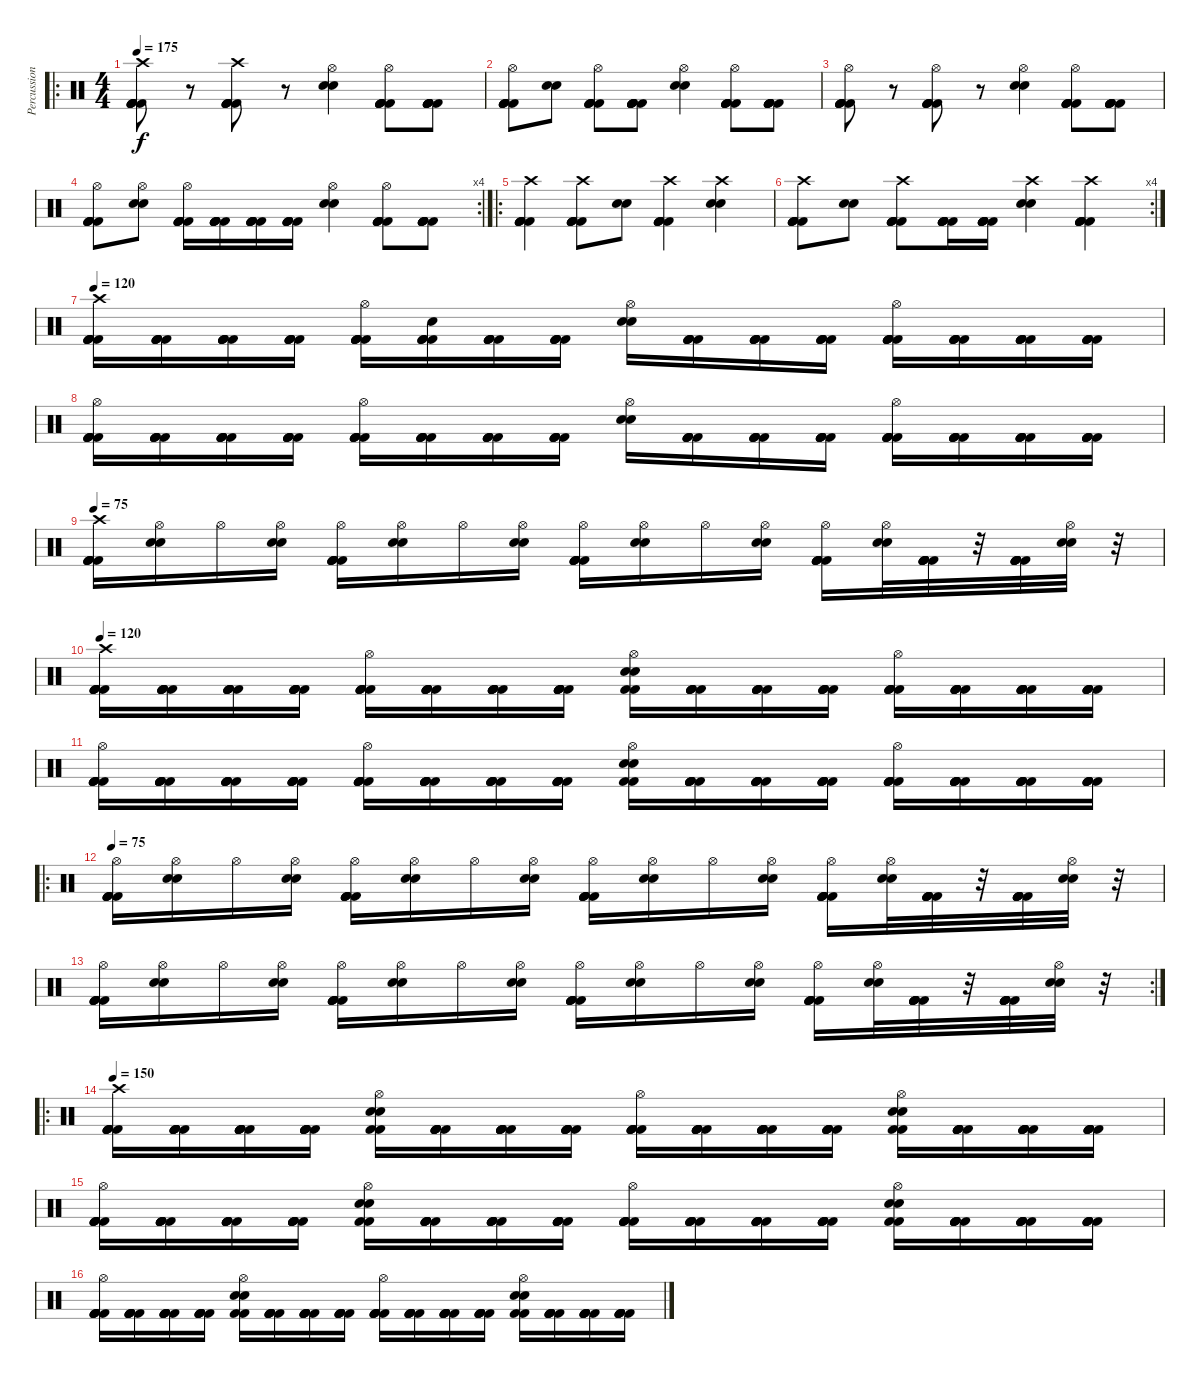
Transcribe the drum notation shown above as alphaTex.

\track ("Percussions" "Percussion") {instrument percussion}
\staff {score}
\articulation defaults
\ro
\ts (4 4)
\tempo 175
\clef neutral
\ks c
("Kick (hit) 2" "Kick (hit) 2" "Kick (hit) 2" "Kick (hit) 2" "Kick (hit) 2" "Crash high (hit)").8{dy f} r.8 ("Kick (hit) 2" "Kick (hit) 2" "Kick (hit) 2" "Kick (hit) 2" "Kick (hit) 2" "Crash high (hit)").8 r.8 ("Electric Snare (hit)" "Electric Snare (hit)" "Hi-Hat (open)").4 ("Kick (hit) 2" "Kick (hit) 2" "Kick (hit) 2" "Kick (hit) 2" "Kick (hit) 2" "Hi-Hat (open)").8 ("Kick (hit) 2" "Kick (hit) 2" "Kick (hit) 2" "Kick (hit) 2" "Kick (hit) 2" "Kick (hit) 2").8 |
("Kick (hit) 2" "Kick (hit) 2" "Kick (hit) 2" "Kick (hit) 2" "Kick (hit) 2" "Hi-Hat (open)").8 ("Electric Snare (hit)" "Electric Snare (hit)").8 ("Kick (hit) 2" "Kick (hit) 2" "Kick (hit) 2" "Kick (hit) 2" "Kick (hit) 2" "Hi-Hat (open)").8 ("Kick (hit) 2" "Kick (hit) 2" "Kick (hit) 2" "Kick (hit) 2" "Kick (hit) 2" "Kick (hit) 2").8 ("Electric Snare (hit)" "Electric Snare (hit)" "Hi-Hat (open)").4 ("Kick (hit) 2" "Kick (hit) 2" "Kick (hit) 2" "Kick (hit) 2" "Kick (hit) 2" "Hi-Hat (open)").8 ("Kick (hit) 2" "Kick (hit) 2" "Kick (hit) 2" "Kick (hit) 2" "Kick (hit) 2" "Kick (hit) 2").8 |
("Kick (hit) 2" "Kick (hit) 2" "Kick (hit) 2" "Kick (hit) 2" "Kick (hit) 2" "Hi-Hat (open)").8 r.8 ("Kick (hit) 2" "Kick (hit) 2" "Kick (hit) 2" "Kick (hit) 2" "Kick (hit) 2" "Hi-Hat (open)").8 r.8 ("Electric Snare (hit)" "Electric Snare (hit)" "Hi-Hat (open)").4 ("Kick (hit) 2" "Kick (hit) 2" "Kick (hit) 2" "Kick (hit) 2" "Kick (hit) 2" "Hi-Hat (open)").8 ("Kick (hit) 2" "Kick (hit) 2" "Kick (hit) 2" "Kick (hit) 2" "Kick (hit) 2" "Kick (hit) 2").8 |
\rc 4
("Kick (hit) 2" "Kick (hit) 2" "Kick (hit) 2" "Kick (hit) 2" "Kick (hit) 2" "Hi-Hat (open)").8 ("Electric Snare (hit)" "Electric Snare (hit)" "Hi-Hat (open)").8 ("Kick (hit) 2" "Kick (hit) 2" "Kick (hit) 2" "Kick (hit) 2" "Kick (hit) 2" "Hi-Hat (open)").16 ("Kick (hit) 2" "Kick (hit) 2" "Kick (hit) 2" "Kick (hit) 2" "Kick (hit) 2" "Kick (hit) 2").16 ("Kick (hit) 2" "Kick (hit) 2" "Kick (hit) 2" "Kick (hit) 2" "Kick (hit) 2" "Kick (hit) 2").16 ("Kick (hit) 2" "Kick (hit) 2" "Kick (hit) 2" "Kick (hit) 2" "Kick (hit) 2" "Kick (hit) 2").16 ("Electric Snare (hit)" "Electric Snare (hit)" "Hi-Hat (open)").4 ("Kick (hit) 2" "Kick (hit) 2" "Kick (hit) 2" "Kick (hit) 2" "Kick (hit) 2" "Hi-Hat (open)").8 ("Kick (hit) 2" "Kick (hit) 2" "Kick (hit) 2" "Kick (hit) 2" "Kick (hit) 2" "Kick (hit) 2").8 |
\ro
("Kick (hit) 2" "Kick (hit) 2" "Kick (hit) 2" "Kick (hit) 2" "Kick (hit) 2" "Crash high (hit)").4 ("Kick (hit) 2" "Kick (hit) 2" "Kick (hit) 2" "Kick (hit) 2" "Kick (hit) 2" "Crash high (hit)").8 ("Electric Snare (hit)" "Electric Snare (hit)").8 ("Kick (hit) 2" "Kick (hit) 2" "Kick (hit) 2" "Kick (hit) 2" "Kick (hit) 2" "Crash high (hit)").4 ("Electric Snare (hit)" "Electric Snare (hit)" "Crash high (hit)").4 |
\rc 4
("Kick (hit) 2" "Kick (hit) 2" "Kick (hit) 2" "Kick (hit) 2" "Kick (hit) 2" "Crash high (hit)").8 ("Electric Snare (hit)" "Electric Snare (hit)").8 ("Kick (hit) 2" "Kick (hit) 2" "Kick (hit) 2" "Kick (hit) 2" "Kick (hit) 2" "Crash high (hit)").8 ("Kick (hit) 2" "Kick (hit) 2" "Kick (hit) 2" "Kick (hit) 2" "Kick (hit) 2" "Kick (hit) 2").16 ("Kick (hit) 2" "Kick (hit) 2" "Kick (hit) 2" "Kick (hit) 2" "Kick (hit) 2" "Kick (hit) 2").16 ("Electric Snare (hit)" "Electric Snare (hit)" "Crash high (hit)").4 ("Kick (hit) 2" "Kick (hit) 2" "Kick (hit) 2" "Kick (hit) 2" "Kick (hit) 2" "Crash high (hit)").4 |
\tempo 120
("Kick (hit) 2" "Kick (hit) 2" "Kick (hit) 2" "Kick (hit) 2" "Kick (hit) 2" "Crash high (hit)").16 ("Kick (hit) 2" "Kick (hit) 2" "Kick (hit) 2" "Kick (hit) 2" "Kick (hit) 2").16 ("Kick (hit) 2" "Kick (hit) 2" "Kick (hit) 2" "Kick (hit) 2" "Kick (hit) 2").16 ("Kick (hit) 2" "Kick (hit) 2" "Kick (hit) 2" "Kick (hit) 2" "Kick (hit) 2").16 ("Kick (hit) 2" "Kick (hit) 2" "Kick (hit) 2" "Kick (hit) 2" "Kick (hit) 2" "Hi-Hat (open)").16 ("Snare (hit)" "Kick (hit) 2" "Kick (hit) 2" "Kick (hit) 2" "Kick (hit) 2").16 ("Kick (hit) 2" "Kick (hit) 2" "Kick (hit) 2" "Kick (hit) 2" "Kick (hit) 2").16 ("Kick (hit) 2" "Kick (hit) 2" "Kick (hit) 2" "Kick (hit) 2" "Kick (hit) 2").16 ("Electric Snare (hit)" "Electric Snare (hit)" "Hi-Hat (open)").16 ("Kick (hit) 2" "Kick (hit) 2" "Kick (hit) 2" "Kick (hit) 2" "Kick (hit) 2").16 ("Kick (hit) 2" "Kick (hit) 2" "Kick (hit) 2" "Kick (hit) 2" "Kick (hit) 2").16 ("Kick (hit) 2" "Kick (hit) 2" "Kick (hit) 2" "Kick (hit) 2" "Kick (hit) 2").16 ("Kick (hit) 2" "Kick (hit) 2" "Kick (hit) 2" "Kick (hit) 2" "Kick (hit) 2" "Hi-Hat (open)").16 ("Kick (hit) 2" "Kick (hit) 2" "Kick (hit) 2" "Kick (hit) 2" "Kick (hit) 2").16 ("Kick (hit) 2" "Kick (hit) 2" "Kick (hit) 2" "Kick (hit) 2" "Kick (hit) 2").16 ("Kick (hit) 2" "Kick (hit) 2" "Kick (hit) 2" "Kick (hit) 2" "Kick (hit) 2").16 |
("Kick (hit) 2" "Kick (hit) 2" "Kick (hit) 2" "Kick (hit) 2" "Kick (hit) 2" "Hi-Hat (open)").16 ("Kick (hit) 2" "Kick (hit) 2" "Kick (hit) 2" "Kick (hit) 2" "Kick (hit) 2").16 ("Kick (hit) 2" "Kick (hit) 2" "Kick (hit) 2" "Kick (hit) 2" "Kick (hit) 2").16 ("Kick (hit) 2" "Kick (hit) 2" "Kick (hit) 2" "Kick (hit) 2" "Kick (hit) 2").16 ("Kick (hit) 2" "Kick (hit) 2" "Kick (hit) 2" "Kick (hit) 2" "Kick (hit) 2" "Hi-Hat (open)").16 ("Kick (hit) 2" "Kick (hit) 2" "Kick (hit) 2" "Kick (hit) 2" "Kick (hit) 2").16 ("Kick (hit) 2" "Kick (hit) 2" "Kick (hit) 2" "Kick (hit) 2" "Kick (hit) 2").16 ("Kick (hit) 2" "Kick (hit) 2" "Kick (hit) 2" "Kick (hit) 2" "Kick (hit) 2").16 ("Electric Snare (hit)" "Electric Snare (hit)" "Hi-Hat (open)").16 ("Kick (hit) 2" "Kick (hit) 2" "Kick (hit) 2" "Kick (hit) 2" "Kick (hit) 2").16 ("Kick (hit) 2" "Kick (hit) 2" "Kick (hit) 2" "Kick (hit) 2" "Kick (hit) 2").16 ("Kick (hit) 2" "Kick (hit) 2" "Kick (hit) 2" "Kick (hit) 2" "Kick (hit) 2").16 ("Kick (hit) 2" "Kick (hit) 2" "Kick (hit) 2" "Kick (hit) 2" "Kick (hit) 2" "Hi-Hat (open)").16 ("Kick (hit) 2" "Kick (hit) 2" "Kick (hit) 2" "Kick (hit) 2" "Kick (hit) 2").16 ("Kick (hit) 2" "Kick (hit) 2" "Kick (hit) 2" "Kick (hit) 2" "Kick (hit) 2").16 ("Kick (hit) 2" "Kick (hit) 2" "Kick (hit) 2" "Kick (hit) 2" "Kick (hit) 2").16 |
\tempo 75
("Kick (hit) 2" "Kick (hit) 2" "Kick (hit) 2" "Kick (hit) 2" "Kick (hit) 2" "Crash high (hit)").16 ("Electric Snare (hit)" "Electric Snare (hit)" "Hi-Hat (open)").16 "Hi-Hat (open)".16 ("Electric Snare (hit)" "Electric Snare (hit)" "Hi-Hat (open)").16 ("Kick (hit) 2" "Kick (hit) 2" "Kick (hit) 2" "Kick (hit) 2" "Kick (hit) 2" "Hi-Hat (open)").16 ("Electric Snare (hit)" "Electric Snare (hit)" "Hi-Hat (open)").16 "Hi-Hat (open)".16 ("Electric Snare (hit)" "Electric Snare (hit)" "Hi-Hat (open)").16 ("Kick (hit) 2" "Kick (hit) 2" "Kick (hit) 2" "Kick (hit) 2" "Kick (hit) 2" "Hi-Hat (open)").16 ("Electric Snare (hit)" "Electric Snare (hit)" "Hi-Hat (open)").16 "Hi-Hat (open)".16 ("Electric Snare (hit)" "Electric Snare (hit)" "Hi-Hat (open)").16 ("Kick (hit) 2" "Kick (hit) 2" "Kick (hit) 2" "Kick (hit) 2" "Kick (hit) 2" "Hi-Hat (open)").16 ("Electric Snare (hit)" "Electric Snare (hit)" "Hi-Hat (open)").32 ("Kick (hit) 2" "Kick (hit) 2" "Kick (hit) 2" "Kick (hit) 2" "Kick (hit) 2" "Kick (hit) 2").32 r.32 ("Kick (hit) 2" "Kick (hit) 2" "Kick (hit) 2" "Kick (hit) 2" "Kick (hit) 2" "Kick (hit) 2").32 ("Electric Snare (hit)" "Electric Snare (hit)" "Hi-Hat (open)").32 r.32 |
\tempo 120
("Kick (hit) 2" "Kick (hit) 2" "Kick (hit) 2" "Kick (hit) 2" "Kick (hit) 2" "Crash high (hit)").16 ("Kick (hit) 2" "Kick (hit) 2" "Kick (hit) 2" "Kick (hit) 2" "Kick (hit) 2" "Kick (hit) 2").16 ("Kick (hit) 2" "Kick (hit) 2" "Kick (hit) 2" "Kick (hit) 2" "Kick (hit) 2" "Kick (hit) 2").16 ("Kick (hit) 2" "Kick (hit) 2" "Kick (hit) 2" "Kick (hit) 2" "Kick (hit) 2" "Kick (hit) 2").16 ("Kick (hit) 2" "Kick (hit) 2" "Kick (hit) 2" "Kick (hit) 2" "Kick (hit) 2" "Hi-Hat (open)").16 ("Kick (hit) 2" "Kick (hit) 2" "Kick (hit) 2" "Kick (hit) 2" "Kick (hit) 2" "Kick (hit) 2").16 ("Kick (hit) 2" "Kick (hit) 2" "Kick (hit) 2" "Kick (hit) 2" "Kick (hit) 2" "Kick (hit) 2").16 ("Kick (hit) 2" "Kick (hit) 2" "Kick (hit) 2" "Kick (hit) 2" "Kick (hit) 2" "Kick (hit) 2").16 ("Kick (hit) 2" "Kick (hit) 2" "Electric Snare (hit)" "Electric Snare (hit)" "Hi-Hat (open)").16 ("Kick (hit) 2" "Kick (hit) 2" "Kick (hit) 2" "Kick (hit) 2" "Kick (hit) 2").16 ("Kick (hit) 2" "Kick (hit) 2" "Kick (hit) 2" "Kick (hit) 2" "Kick (hit) 2").16 ("Kick (hit) 2" "Kick (hit) 2" "Kick (hit) 2" "Kick (hit) 2" "Kick (hit) 2").16 ("Kick (hit) 2" "Kick (hit) 2" "Kick (hit) 2" "Kick (hit) 2" "Kick (hit) 2" "Hi-Hat (open)").16 ("Kick (hit) 2" "Kick (hit) 2" "Kick (hit) 2" "Kick (hit) 2" "Kick (hit) 2" "Kick (hit) 2").16 ("Kick (hit) 2" "Kick (hit) 2" "Kick (hit) 2" "Kick (hit) 2" "Kick (hit) 2" "Kick (hit) 2").16 ("Kick (hit) 2" "Kick (hit) 2" "Kick (hit) 2" "Kick (hit) 2" "Kick (hit) 2" "Kick (hit) 2").16 |
("Kick (hit) 2" "Kick (hit) 2" "Kick (hit) 2" "Kick (hit) 2" "Kick (hit) 2" "Hi-Hat (open)").16 ("Kick (hit) 2" "Kick (hit) 2" "Kick (hit) 2" "Kick (hit) 2" "Kick (hit) 2" "Kick (hit) 2").16 ("Kick (hit) 2" "Kick (hit) 2" "Kick (hit) 2" "Kick (hit) 2" "Kick (hit) 2" "Kick (hit) 2").16 ("Kick (hit) 2" "Kick (hit) 2" "Kick (hit) 2" "Kick (hit) 2" "Kick (hit) 2" "Kick (hit) 2").16 ("Kick (hit) 2" "Kick (hit) 2" "Kick (hit) 2" "Kick (hit) 2" "Kick (hit) 2" "Hi-Hat (open)").16 ("Kick (hit) 2" "Kick (hit) 2" "Kick (hit) 2" "Kick (hit) 2" "Kick (hit) 2" "Kick (hit) 2").16 ("Kick (hit) 2" "Kick (hit) 2" "Kick (hit) 2" "Kick (hit) 2" "Kick (hit) 2" "Kick (hit) 2").16 ("Kick (hit) 2" "Kick (hit) 2" "Kick (hit) 2" "Kick (hit) 2" "Kick (hit) 2" "Kick (hit) 2").16 ("Kick (hit) 2" "Kick (hit) 2" "Electric Snare (hit)" "Electric Snare (hit)" "Hi-Hat (open)").16 ("Kick (hit) 2" "Kick (hit) 2" "Kick (hit) 2" "Kick (hit) 2" "Kick (hit) 2" "Kick (hit) 2").16 ("Kick (hit) 2" "Kick (hit) 2" "Kick (hit) 2" "Kick (hit) 2" "Kick (hit) 2" "Kick (hit) 2").16 ("Kick (hit) 2" "Kick (hit) 2" "Kick (hit) 2" "Kick (hit) 2" "Kick (hit) 2" "Kick (hit) 2").16 ("Kick (hit) 2" "Kick (hit) 2" "Kick (hit) 2" "Kick (hit) 2" "Kick (hit) 2" "Hi-Hat (open)").16 ("Kick (hit) 2" "Kick (hit) 2" "Kick (hit) 2" "Kick (hit) 2" "Kick (hit) 2" "Kick (hit) 2").16 ("Kick (hit) 2" "Kick (hit) 2" "Kick (hit) 2" "Kick (hit) 2" "Kick (hit) 2" "Kick (hit) 2").16 ("Kick (hit) 2" "Kick (hit) 2" "Kick (hit) 2" "Kick (hit) 2" "Kick (hit) 2" "Kick (hit) 2").16 |
\ro
\tempo 75
("Kick (hit) 2" "Kick (hit) 2" "Kick (hit) 2" "Kick (hit) 2" "Kick (hit) 2" "Hi-Hat (open)").16 ("Electric Snare (hit)" "Electric Snare (hit)" "Hi-Hat (open)").16 "Hi-Hat (open)".16 ("Electric Snare (hit)" "Electric Snare (hit)" "Hi-Hat (open)").16 ("Kick (hit) 2" "Kick (hit) 2" "Kick (hit) 2" "Kick (hit) 2" "Kick (hit) 2" "Hi-Hat (open)").16 ("Electric Snare (hit)" "Electric Snare (hit)" "Hi-Hat (open)").16 "Hi-Hat (open)".16 ("Electric Snare (hit)" "Electric Snare (hit)" "Hi-Hat (open)").16 ("Kick (hit) 2" "Kick (hit) 2" "Kick (hit) 2" "Kick (hit) 2" "Kick (hit) 2" "Hi-Hat (open)").16 ("Electric Snare (hit)" "Electric Snare (hit)" "Hi-Hat (open)").16 "Hi-Hat (open)".16 ("Electric Snare (hit)" "Electric Snare (hit)" "Hi-Hat (open)").16 ("Kick (hit) 2" "Kick (hit) 2" "Kick (hit) 2" "Kick (hit) 2" "Kick (hit) 2" "Hi-Hat (open)").16 ("Electric Snare (hit)" "Electric Snare (hit)" "Hi-Hat (open)").32 ("Kick (hit) 2" "Kick (hit) 2" "Kick (hit) 2" "Kick (hit) 2" "Kick (hit) 2" "Kick (hit) 2").32 r.32 ("Kick (hit) 2" "Kick (hit) 2" "Kick (hit) 2" "Kick (hit) 2" "Kick (hit) 2" "Kick (hit) 2").32 ("Electric Snare (hit)" "Electric Snare (hit)" "Hi-Hat (open)").32 r.32 |
\rc 2
("Kick (hit) 2" "Kick (hit) 2" "Kick (hit) 2" "Kick (hit) 2" "Kick (hit) 2" "Hi-Hat (open)").16 ("Electric Snare (hit)" "Electric Snare (hit)" "Hi-Hat (open)").16 "Hi-Hat (open)".16 ("Electric Snare (hit)" "Electric Snare (hit)" "Hi-Hat (open)").16 ("Kick (hit) 2" "Kick (hit) 2" "Kick (hit) 2" "Kick (hit) 2" "Kick (hit) 2" "Hi-Hat (open)").16 ("Electric Snare (hit)" "Electric Snare (hit)" "Hi-Hat (open)").16 "Hi-Hat (open)".16 ("Electric Snare (hit)" "Electric Snare (hit)" "Hi-Hat (open)").16 ("Kick (hit) 2" "Kick (hit) 2" "Kick (hit) 2" "Kick (hit) 2" "Kick (hit) 2" "Hi-Hat (open)").16 ("Electric Snare (hit)" "Electric Snare (hit)" "Hi-Hat (open)").16 "Hi-Hat (open)".16 ("Electric Snare (hit)" "Electric Snare (hit)" "Hi-Hat (open)").16 ("Kick (hit) 2" "Kick (hit) 2" "Kick (hit) 2" "Kick (hit) 2" "Kick (hit) 2" "Hi-Hat (open)").16 ("Electric Snare (hit)" "Electric Snare (hit)" "Hi-Hat (open)").32 ("Kick (hit) 2" "Kick (hit) 2" "Kick (hit) 2" "Kick (hit) 2" "Kick (hit) 2" "Kick (hit) 2").32 r.32 ("Kick (hit) 2" "Kick (hit) 2" "Kick (hit) 2" "Kick (hit) 2" "Kick (hit) 2" "Kick (hit) 2").32 ("Electric Snare (hit)" "Electric Snare (hit)" "Hi-Hat (open)").32 r.32 |
\ro
\tempo 150
("Kick (hit) 2" "Kick (hit) 2" "Kick (hit) 2" "Kick (hit) 2" "Kick (hit) 2" "Crash high (hit)").16 ("Kick (hit) 2" "Kick (hit) 2" "Kick (hit) 2" "Kick (hit) 2" "Kick (hit) 2" "Kick (hit) 2").16 ("Kick (hit) 2" "Kick (hit) 2" "Kick (hit) 2" "Kick (hit) 2" "Kick (hit) 2" "Kick (hit) 2").16 ("Kick (hit) 2" "Kick (hit) 2" "Kick (hit) 2" "Kick (hit) 2" "Kick (hit) 2" "Kick (hit) 2").16 ("Kick (hit) 2" "Kick (hit) 2" "Electric Snare (hit)" "Electric Snare (hit)" "Hi-Hat (open)").16 ("Kick (hit) 2" "Kick (hit) 2" "Kick (hit) 2" "Kick (hit) 2" "Kick (hit) 2" "Kick (hit) 2").16 ("Kick (hit) 2" "Kick (hit) 2" "Kick (hit) 2" "Kick (hit) 2" "Kick (hit) 2" "Kick (hit) 2").16 ("Kick (hit) 2" "Kick (hit) 2" "Kick (hit) 2" "Kick (hit) 2" "Kick (hit) 2" "Kick (hit) 2").16 ("Kick (hit) 2" "Kick (hit) 2" "Kick (hit) 2" "Kick (hit) 2" "Kick (hit) 2" "Hi-Hat (open)").16 ("Kick (hit) 2" "Kick (hit) 2" "Kick (hit) 2" "Kick (hit) 2" "Kick (hit) 2" "Kick (hit) 2").16 ("Kick (hit) 2" "Kick (hit) 2" "Kick (hit) 2" "Kick (hit) 2" "Kick (hit) 2" "Kick (hit) 2").16 ("Kick (hit) 2" "Kick (hit) 2" "Kick (hit) 2" "Kick (hit) 2" "Kick (hit) 2" "Kick (hit) 2").16 ("Kick (hit) 2" "Kick (hit) 2" "Electric Snare (hit)" "Electric Snare (hit)" "Hi-Hat (open)").16 ("Kick (hit) 2" "Kick (hit) 2" "Kick (hit) 2" "Kick (hit) 2" "Kick (hit) 2" "Kick (hit) 2").16 ("Kick (hit) 2" "Kick (hit) 2" "Kick (hit) 2" "Kick (hit) 2" "Kick (hit) 2" "Kick (hit) 2").16 ("Kick (hit) 2" "Kick (hit) 2" "Kick (hit) 2" "Kick (hit) 2" "Kick (hit) 2" "Kick (hit) 2").16 |
("Kick (hit) 2" "Kick (hit) 2" "Kick (hit) 2" "Kick (hit) 2" "Kick (hit) 2" "Hi-Hat (open)").16 ("Kick (hit) 2" "Kick (hit) 2" "Kick (hit) 2" "Kick (hit) 2" "Kick (hit) 2" "Kick (hit) 2").16 ("Kick (hit) 2" "Kick (hit) 2" "Kick (hit) 2" "Kick (hit) 2" "Kick (hit) 2" "Kick (hit) 2").16 ("Kick (hit) 2" "Kick (hit) 2" "Kick (hit) 2" "Kick (hit) 2" "Kick (hit) 2" "Kick (hit) 2").16 ("Kick (hit) 2" "Kick (hit) 2" "Electric Snare (hit)" "Electric Snare (hit)" "Hi-Hat (open)").16 ("Kick (hit) 2" "Kick (hit) 2" "Kick (hit) 2" "Kick (hit) 2" "Kick (hit) 2" "Kick (hit) 2").16 ("Kick (hit) 2" "Kick (hit) 2" "Kick (hit) 2" "Kick (hit) 2" "Kick (hit) 2" "Kick (hit) 2").16 ("Kick (hit) 2" "Kick (hit) 2" "Kick (hit) 2" "Kick (hit) 2" "Kick (hit) 2" "Kick (hit) 2").16 ("Kick (hit) 2" "Kick (hit) 2" "Kick (hit) 2" "Kick (hit) 2" "Kick (hit) 2" "Hi-Hat (open)").16 ("Kick (hit) 2" "Kick (hit) 2" "Kick (hit) 2" "Kick (hit) 2" "Kick (hit) 2" "Kick (hit) 2").16 ("Kick (hit) 2" "Kick (hit) 2" "Kick (hit) 2" "Kick (hit) 2" "Kick (hit) 2" "Kick (hit) 2").16 ("Kick (hit) 2" "Kick (hit) 2" "Kick (hit) 2" "Kick (hit) 2" "Kick (hit) 2" "Kick (hit) 2").16 ("Kick (hit) 2" "Kick (hit) 2" "Electric Snare (hit)" "Electric Snare (hit)" "Hi-Hat (open)").16 ("Kick (hit) 2" "Kick (hit) 2" "Kick (hit) 2" "Kick (hit) 2" "Kick (hit) 2" "Kick (hit) 2").16 ("Kick (hit) 2" "Kick (hit) 2" "Kick (hit) 2" "Kick (hit) 2" "Kick (hit) 2" "Kick (hit) 2").16 ("Kick (hit) 2" "Kick (hit) 2" "Kick (hit) 2" "Kick (hit) 2" "Kick (hit) 2" "Kick (hit) 2").16 |
("Kick (hit) 2" "Kick (hit) 2" "Kick (hit) 2" "Kick (hit) 2" "Kick (hit) 2" "Hi-Hat (open)").16 ("Kick (hit) 2" "Kick (hit) 2" "Kick (hit) 2" "Kick (hit) 2" "Kick (hit) 2" "Kick (hit) 2").16 ("Kick (hit) 2" "Kick (hit) 2" "Kick (hit) 2" "Kick (hit) 2" "Kick (hit) 2" "Kick (hit) 2").16 ("Kick (hit) 2" "Kick (hit) 2" "Kick (hit) 2" "Kick (hit) 2" "Kick (hit) 2" "Kick (hit) 2").16 ("Kick (hit) 2" "Kick (hit) 2" "Electric Snare (hit)" "Electric Snare (hit)" "Hi-Hat (open)").16 ("Kick (hit) 2" "Kick (hit) 2" "Kick (hit) 2" "Kick (hit) 2" "Kick (hit) 2" "Kick (hit) 2").16 ("Kick (hit) 2" "Kick (hit) 2" "Kick (hit) 2" "Kick (hit) 2" "Kick (hit) 2" "Kick (hit) 2").16 ("Kick (hit) 2" "Kick (hit) 2" "Kick (hit) 2" "Kick (hit) 2" "Kick (hit) 2" "Kick (hit) 2").16 ("Kick (hit) 2" "Kick (hit) 2" "Kick (hit) 2" "Kick (hit) 2" "Kick (hit) 2" "Hi-Hat (open)").16 ("Kick (hit) 2" "Kick (hit) 2" "Kick (hit) 2" "Kick (hit) 2" "Kick (hit) 2" "Kick (hit) 2").16 ("Kick (hit) 2" "Kick (hit) 2" "Kick (hit) 2" "Kick (hit) 2" "Kick (hit) 2" "Kick (hit) 2").16 ("Kick (hit) 2" "Kick (hit) 2" "Kick (hit) 2" "Kick (hit) 2" "Kick (hit) 2" "Kick (hit) 2").16 ("Kick (hit) 2" "Kick (hit) 2" "Electric Snare (hit)" "Electric Snare (hit)" "Hi-Hat (open)").16 ("Kick (hit) 2" "Kick (hit) 2" "Kick (hit) 2" "Kick (hit) 2" "Kick (hit) 2" "Kick (hit) 2").16 ("Kick (hit) 2" "Kick (hit) 2" "Kick (hit) 2" "Kick (hit) 2" "Kick (hit) 2" "Kick (hit) 2").16 ("Kick (hit) 2" "Kick (hit) 2" "Kick (hit) 2" "Kick (hit) 2" "Kick (hit) 2" "Kick (hit) 2").16
